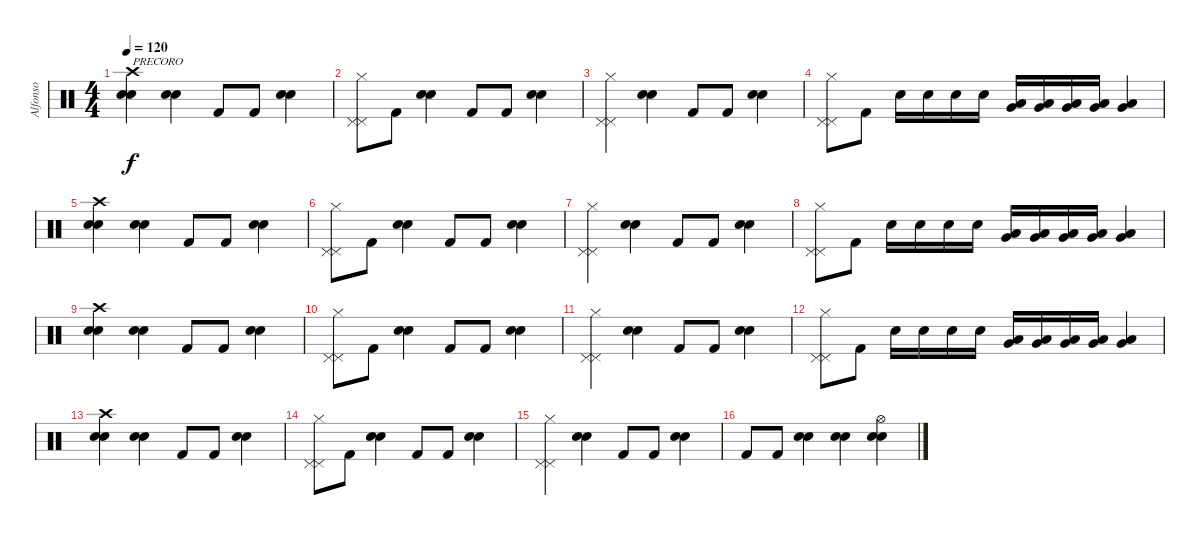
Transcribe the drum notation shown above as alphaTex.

\track ("Alfonso" "Alfonso") {instrument percussion}
\staff {score}
\articulation defaults
\ts (4 4)
\tempo 120
\clef neutral
\ks c
("Snare (hit) 2" "Crash high (hit)" "Electric Snare (hit)").4{txt "PRECORO" dy f} ("Electric Snare (hit)" "Electric Snare (hit)").4 "Kick (hit) 2".8 "Kick (hit) 2".8 ("Electric Snare (hit)" "Electric Snare (hit)").4 |
("Pedal Hi-Hat (hit)" "Hi-Hat (closed)" "Pedal Hi-Hat (hit)").8 "Kick (hit) 2".8 ("Electric Snare (hit)" "Electric Snare (hit)").4 "Kick (hit) 2".8 "Kick (hit) 2".8 ("Electric Snare (hit)" "Electric Snare (hit)").4 |
("Pedal Hi-Hat (hit)" "Pedal Hi-Hat (hit)" "Hi-Hat (closed)").4 ("Electric Snare (hit)" "Electric Snare (hit)").4 "Kick (hit) 2".8 "Kick (hit) 2".8 ("Electric Snare (hit)" "Electric Snare (hit)").4 |
("Pedal Hi-Hat (hit)" "Hi-Hat (closed)" "Pedal Hi-Hat (hit)").8 "Kick (hit) 2".8 "Electric Snare (hit)".16 "Electric Snare (hit)".16 "Electric Snare (hit)".16 "Electric Snare (hit)".16 ("Very Low Tom (hit)" "Low Floor Tom (hit)").16 ("Very Low Tom (hit)" "Low Floor Tom (hit)").16 ("Very Low Tom (hit)" "Low Floor Tom (hit)").16 ("Very Low Tom (hit)" "Low Floor Tom (hit)").16 ("Very Low Tom (hit)" "Low Floor Tom (hit)").4 |
("Snare (hit) 2" "Crash high (hit)" "Electric Snare (hit)").4 ("Electric Snare (hit)" "Electric Snare (hit)").4 "Kick (hit) 2".8 "Kick (hit) 2".8 ("Electric Snare (hit)" "Electric Snare (hit)").4 |
("Pedal Hi-Hat (hit)" "Hi-Hat (closed)" "Pedal Hi-Hat (hit)").8 "Kick (hit) 2".8 ("Electric Snare (hit)" "Electric Snare (hit)").4 "Kick (hit) 2".8 "Kick (hit) 2".8 ("Electric Snare (hit)" "Electric Snare (hit)").4 |
("Pedal Hi-Hat (hit)" "Pedal Hi-Hat (hit)" "Hi-Hat (closed)").4 ("Electric Snare (hit)" "Electric Snare (hit)").4 "Kick (hit) 2".8 "Kick (hit) 2".8 ("Electric Snare (hit)" "Electric Snare (hit)").4 |
("Pedal Hi-Hat (hit)" "Hi-Hat (closed)" "Pedal Hi-Hat (hit)").8 "Kick (hit) 2".8 "Electric Snare (hit)".16 "Electric Snare (hit)".16 "Electric Snare (hit)".16 "Electric Snare (hit)".16 ("Very Low Tom (hit)" "Low Floor Tom (hit)").16 ("Very Low Tom (hit)" "Low Floor Tom (hit)").16 ("Very Low Tom (hit)" "Low Floor Tom (hit)").16 ("Very Low Tom (hit)" "Low Floor Tom (hit)").16 ("Very Low Tom (hit)" "Low Floor Tom (hit)").4 |
("Snare (hit) 2" "Crash high (hit)" "Electric Snare (hit)").4 ("Electric Snare (hit)" "Electric Snare (hit)").4 "Kick (hit) 2".8 "Kick (hit) 2".8 ("Electric Snare (hit)" "Electric Snare (hit)").4 |
("Pedal Hi-Hat (hit)" "Hi-Hat (closed)" "Pedal Hi-Hat (hit)").8 "Kick (hit) 2".8 ("Electric Snare (hit)" "Electric Snare (hit)").4 "Kick (hit) 2".8 "Kick (hit) 2".8 ("Electric Snare (hit)" "Electric Snare (hit)").4 |
("Pedal Hi-Hat (hit)" "Pedal Hi-Hat (hit)" "Hi-Hat (closed)").4 ("Electric Snare (hit)" "Electric Snare (hit)").4 "Kick (hit) 2".8 "Kick (hit) 2".8 ("Electric Snare (hit)" "Electric Snare (hit)").4 |
("Pedal Hi-Hat (hit)" "Hi-Hat (closed)" "Pedal Hi-Hat (hit)").8 "Kick (hit) 2".8 "Electric Snare (hit)".16 "Electric Snare (hit)".16 "Electric Snare (hit)".16 "Electric Snare (hit)".16 ("Very Low Tom (hit)" "Low Floor Tom (hit)").16 ("Very Low Tom (hit)" "Low Floor Tom (hit)").16 ("Very Low Tom (hit)" "Low Floor Tom (hit)").16 ("Very Low Tom (hit)" "Low Floor Tom (hit)").16 ("Very Low Tom (hit)" "Low Floor Tom (hit)").4 |
("Snare (hit) 2" "Crash high (hit)" "Electric Snare (hit)").4 ("Electric Snare (hit)" "Electric Snare (hit)").4 "Kick (hit) 2".8 "Kick (hit) 2".8 ("Electric Snare (hit)" "Electric Snare (hit)").4 |
("Pedal Hi-Hat (hit)" "Hi-Hat (closed)" "Pedal Hi-Hat (hit)").8 "Kick (hit) 2".8 ("Electric Snare (hit)" "Electric Snare (hit)").4 "Kick (hit) 2".8 "Kick (hit) 2".8 ("Electric Snare (hit)" "Electric Snare (hit)").4 |
("Pedal Hi-Hat (hit)" "Pedal Hi-Hat (hit)" "Hi-Hat (closed)").4 ("Electric Snare (hit)" "Electric Snare (hit)").4 "Kick (hit) 2".8 "Kick (hit) 2".8 ("Electric Snare (hit)" "Electric Snare (hit)").4 |
"Kick (hit) 2".8 "Kick (hit) 2".8 ("Electric Snare (hit)" "Electric Snare (hit)").4 ("Electric Snare (hit)" "Electric Snare (hit)").4 ("Electric Snare (hit)" "Hi-Hat (open)" "Electric Snare (hit)").4
